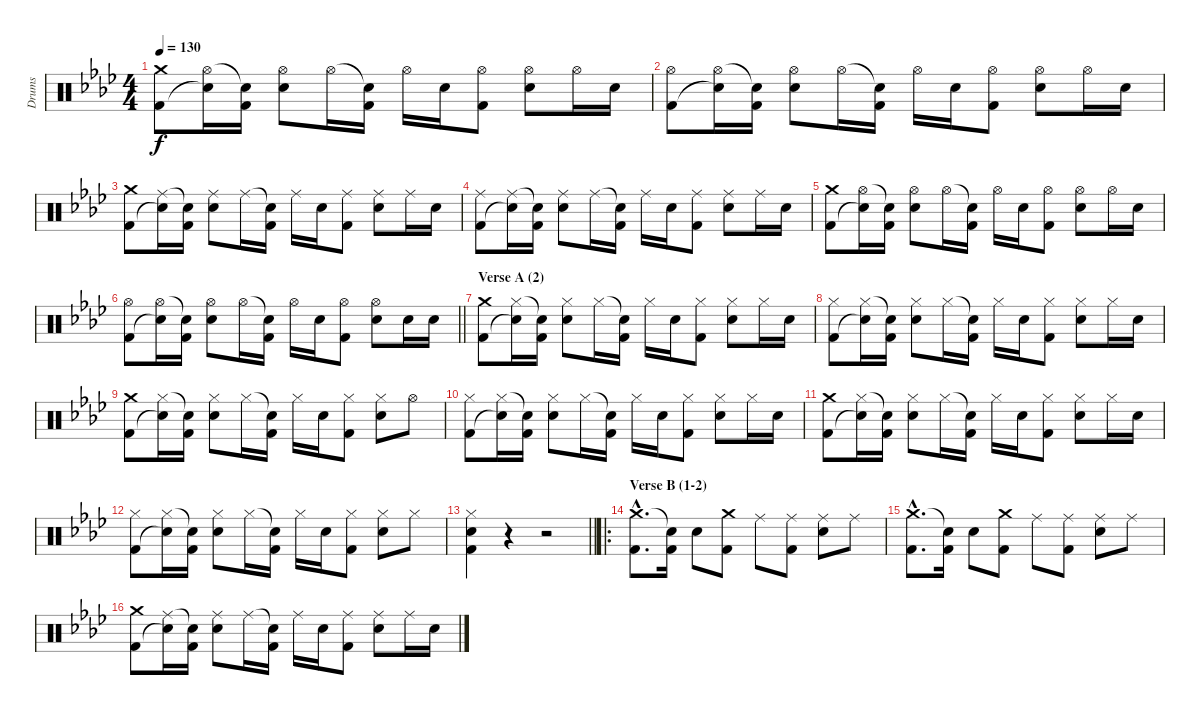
\track ("Drums" "Drums") {instrument percussion}
\staff {score}
\articulation defaults
\ts (4 4)
\tempo 130
\clef neutral
\ks fminor
("Crash medium (hit)" "Kick (hit) 2").8{dy f} ("Hi-Hat (open)" "Snare (hit)"{t}).16 ("Snare (hit)"{t} "Kick (hit) 2").16 ("Hi-Hat (open)" "Electric Snare (hit)").8 "Hi-Hat (open)".16 ("Snare (hit)"{t} "Kick (hit) 2").16 "Hi-Hat (open)".16 "Electric Snare (hit)".16 ("Hi-Hat (open)" "Kick (hit) 2").8 ("Hi-Hat (open)" "Electric Snare (hit)").8 "Hi-Hat (open)".16 "Electric Snare (hit)".16 |
("Hi-Hat (open)" "Kick (hit) 2").8 ("Hi-Hat (open)" "Snare (hit)"{t}).16 ("Snare (hit)"{t} "Kick (hit) 2").16 ("Hi-Hat (open)" "Electric Snare (hit)").8 "Hi-Hat (open)".16 ("Snare (hit)"{t} "Kick (hit) 2").16 "Hi-Hat (open)".16 "Electric Snare (hit)".16 ("Hi-Hat (open)" "Kick (hit) 2").8 ("Hi-Hat (open)" "Electric Snare (hit)").8 "Hi-Hat (open)".16 "Electric Snare (hit)".16 |
("Crash medium (hit)" "Kick (hit) 2").8 ("Ride (middle)" "Snare (hit)"{t}).16 ("Snare (hit)"{t} "Kick (hit) 2").16 ("Ride (middle)" "Electric Snare (hit)").8 "Ride (middle)".16 ("Snare (hit)"{t} "Kick (hit) 2").16 "Ride (middle)".16 "Electric Snare (hit)".16 ("Ride (middle)" "Kick (hit) 2").8 ("Ride (middle)" "Electric Snare (hit)").8 "Ride (middle)".16 "Electric Snare (hit)".16 |
("Ride (middle)" "Kick (hit) 2").8 ("Ride (middle)" "Snare (hit)"{t}).16 ("Snare (hit)"{t} "Kick (hit) 2").16 ("Ride (middle)" "Electric Snare (hit)").8 "Ride (middle)".16 ("Snare (hit)"{t} "Kick (hit) 2").16 "Ride (middle)".16 "Electric Snare (hit)".16 ("Ride (middle)" "Kick (hit) 2").8 ("Ride (middle)" "Electric Snare (hit)").8 "Ride (middle)".16 "Electric Snare (hit)".16 |
("Crash medium (hit)" "Kick (hit) 2").8 ("Hi-Hat (open)" "Snare (hit)"{t}).16 ("Snare (hit)"{t} "Kick (hit) 2").16 ("Hi-Hat (open)" "Electric Snare (hit)").8 "Hi-Hat (open)".16 ("Snare (hit)"{t} "Kick (hit) 2").16 "Hi-Hat (open)".16 "Electric Snare (hit)".16 ("Hi-Hat (open)" "Kick (hit) 2").8 ("Hi-Hat (open)" "Electric Snare (hit)").8 "Hi-Hat (open)".16 "Electric Snare (hit)".16 |
\barLineRight lightlight
("Hi-Hat (open)" "Kick (hit) 2").8 ("Hi-Hat (open)" "Snare (hit)"{t}).16 ("Snare (hit)"{t} "Kick (hit) 2").16 ("Hi-Hat (open)" "Electric Snare (hit)").8 "Hi-Hat (open)".16 ("Snare (hit)"{t} "Kick (hit) 2").16 "Hi-Hat (open)".16 "Electric Snare (hit)".16 ("Hi-Hat (open)" "Kick (hit) 2").8 ("Hi-Hat (open)" "Electric Snare (hit)").8 "Electric Snare (hit)".16 "Electric Snare (hit)".16 |
\section ("" "Verse A (2)")
("Crash medium (hit)" "Kick (hit) 2").8 ("Hi-Hat (closed)" "Snare (hit)"{t}).16 ("Snare (hit)"{t} "Kick (hit) 2").16 ("Hi-Hat (closed)" "Electric Snare (hit)").8 "Hi-Hat (closed)".16 ("Snare (hit)"{t} "Kick (hit) 2").16 "Hi-Hat (closed)".16 "Electric Snare (hit)".16 ("Hi-Hat (closed)" "Kick (hit) 2").8 ("Hi-Hat (closed)" "Electric Snare (hit)").8 "Hi-Hat (closed)".16 "Electric Snare (hit)".16 |
("Hi-Hat (closed)" "Kick (hit) 2").8 ("Hi-Hat (closed)" "Snare (hit)"{t}).16 ("Snare (hit)"{t} "Kick (hit) 2").16 ("Hi-Hat (closed)" "Electric Snare (hit)").8 "Hi-Hat (closed)".16 ("Snare (hit)"{t} "Kick (hit) 2").16 "Hi-Hat (closed)".16 "Electric Snare (hit)".16 ("Hi-Hat (closed)" "Kick (hit) 2").8 ("Hi-Hat (closed)" "Electric Snare (hit)").8 "Hi-Hat (closed)".16 "Electric Snare (hit)".16 |
("Crash medium (hit)" "Kick (hit) 2").8 ("Hi-Hat (closed)" "Snare (hit)"{t}).16 ("Snare (hit)"{t} "Kick (hit) 2").16 ("Hi-Hat (closed)" "Electric Snare (hit)").8 "Hi-Hat (closed)".16 ("Snare (hit)"{t} "Kick (hit) 2").16 "Hi-Hat (closed)".16 "Electric Snare (hit)".16 ("Hi-Hat (closed)" "Kick (hit) 2").8 ("Hi-Hat (closed)" "Electric Snare (hit)").8 "Hi-Hat (open)".8 |
("Hi-Hat (closed)" "Kick (hit) 2").8 ("Hi-Hat (closed)" "Snare (hit)"{t}).16 ("Snare (hit)"{t} "Kick (hit) 2").16 ("Hi-Hat (closed)" "Electric Snare (hit)").8 "Hi-Hat (closed)".16 ("Snare (hit)"{t} "Kick (hit) 2").16 "Hi-Hat (closed)".16 "Electric Snare (hit)".16 ("Hi-Hat (closed)" "Kick (hit) 2").8 ("Hi-Hat (closed)" "Electric Snare (hit)").8 "Hi-Hat (closed)".16 "Electric Snare (hit)".16 |
("Crash medium (hit)" "Kick (hit) 2").8 ("Hi-Hat (closed)" "Snare (hit)"{t}).16 ("Snare (hit)"{t} "Kick (hit) 2").16 ("Hi-Hat (closed)" "Electric Snare (hit)").8 "Hi-Hat (closed)".16 ("Snare (hit)"{t} "Kick (hit) 2").16 "Hi-Hat (closed)".16 "Electric Snare (hit)".16 ("Hi-Hat (closed)" "Kick (hit) 2").8 ("Hi-Hat (closed)" "Electric Snare (hit)").8 "Hi-Hat (closed)".16 "Electric Snare (hit)".16 |
("Hi-Hat (closed)" "Kick (hit) 2").8 ("Hi-Hat (closed)" "Snare (hit)"{t}).16 ("Snare (hit)"{t} "Kick (hit) 2").16 ("Hi-Hat (closed)" "Electric Snare (hit)").8 "Hi-Hat (closed)".16 ("Snare (hit)"{t} "Kick (hit) 2").16 "Hi-Hat (closed)".16 "Electric Snare (hit)".16 ("Hi-Hat (closed)" "Kick (hit) 2").8 ("Hi-Hat (closed)" "Electric Snare (hit)").8 "Hi-Hat (closed)".8 |
\barLineRight lightlight
("Hi-Hat (closed)" "Electric Snare (hit)" "Kick (hit) 2").4 r.4 r.2 |
\ro
\section ("" "Verse B (1-2)")
("Crash medium (hit)"{hac} "Kick (hit) 2"{hac}).8{d} ("Snare (hit)"{t} "Kick (hit) 2").16 "Electric Snare (hit)".8 ("Crash medium (hit)" "Kick (hit) 2").8 "Ride (middle)".8 ("Ride (middle)" "Kick (hit) 2").8 ("Ride (middle)" "Electric Snare (hit)").8 "Ride (middle)".8 |
("Crash medium (hit)"{hac} "Kick (hit) 2"{hac}).8{d} ("Snare (hit)"{t} "Kick (hit) 2").16 "Electric Snare (hit)".8 ("Crash medium (hit)" "Kick (hit) 2").8 "Ride (middle)".8 ("Ride (middle)" "Kick (hit) 2").8 ("Ride (middle)" "Electric Snare (hit)").8 "Ride (middle)".8 |
("Crash medium (hit)" "Kick (hit) 2").8 ("Ride (middle)" "Snare (hit)"{t}).16 ("Snare (hit)"{t} "Kick (hit) 2").16 ("Ride (middle)" "Electric Snare (hit)").8 "Ride (middle)".16 ("Snare (hit)"{t} "Kick (hit) 2").16 "Ride (middle)".16 "Electric Snare (hit)".16 ("Ride (middle)" "Kick (hit) 2").8 ("Ride (middle)" "Electric Snare (hit)").8 "Ride (middle)".16 "Electric Snare (hit)".16
